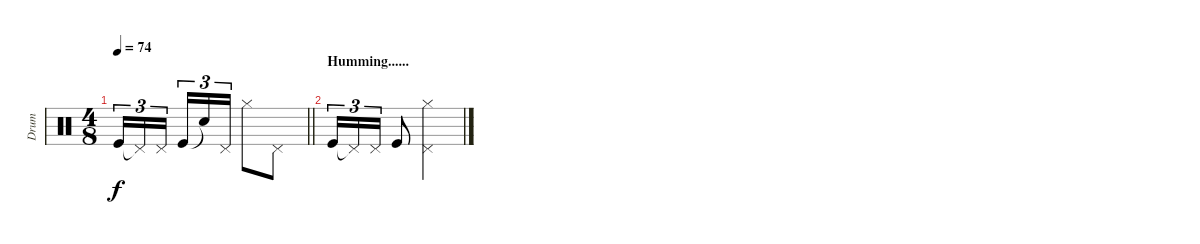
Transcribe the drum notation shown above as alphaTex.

\track ("Drum" "Drum") {instrument percussion}
\staff {score}
\articulation defaults
\ts (4 8)
\tempo 74
\clef neutral
\barLineRight lightlight
\ks c "Kick (hit)".16{tu (3 2) dy f} "Pedal Hi-Hat (hit)"{t}.16{tu (3 2)} "Pedal Hi-Hat (hit)".16{tu (3 2)} "Kick (hit)".16{tu (3 2)} "Snare (hit)"{t}.16{tu (3 2)} "Pedal Hi-Hat (hit)".16{tu (3 2)} "Hi-Hat (closed)".8 "Pedal Hi-Hat (hit)".8
|
\section ("" "Humming......")
"Kick (hit)".16{tu (3 2)} "Pedal Hi-Hat (hit)"{t}.16{tu (3 2)} "Pedal Hi-Hat (hit)".16{tu (3 2)} "Kick (hit)".8 ("Pedal Hi-Hat (hit)" "Hi-Hat (closed)").4
